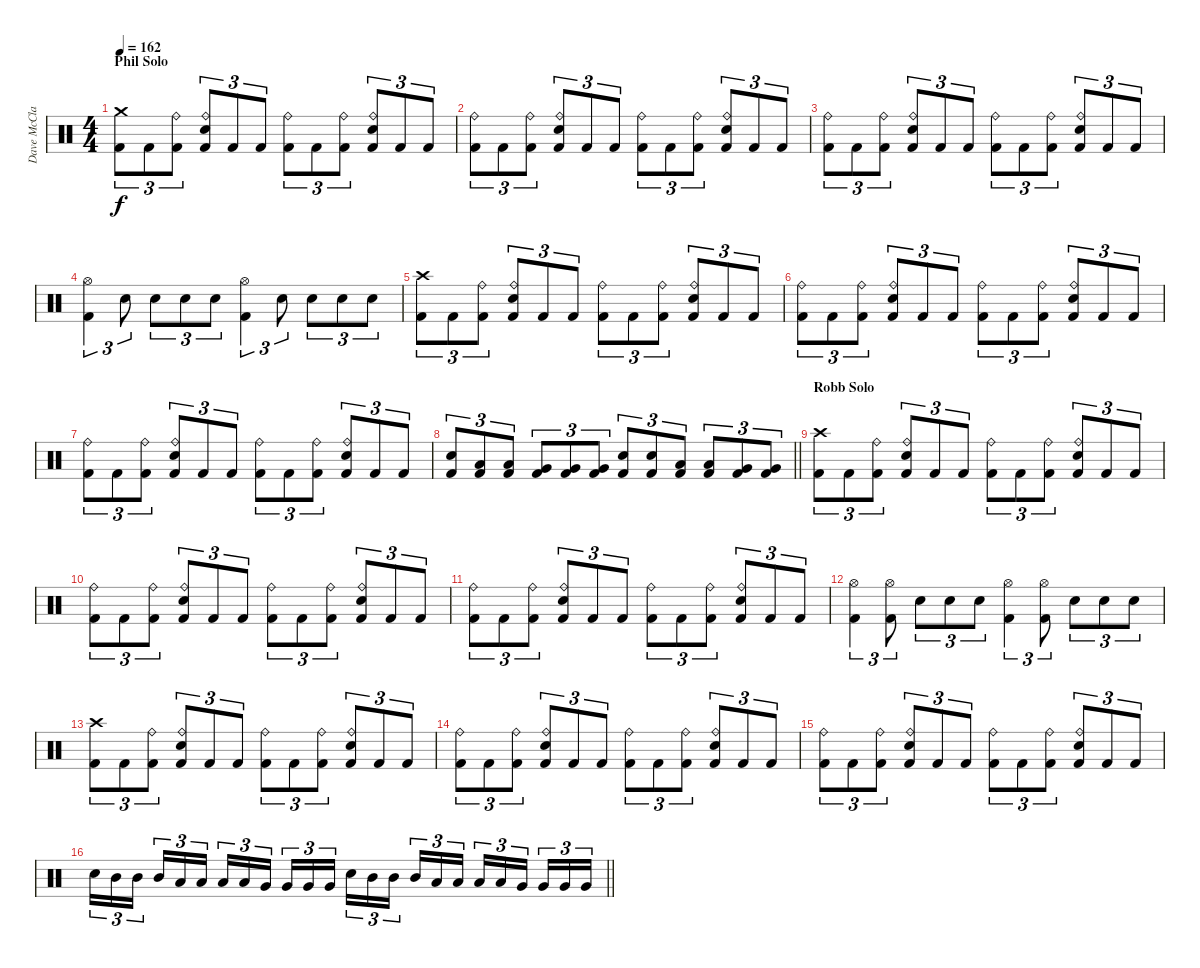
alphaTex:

\track ("Dave McClain" "Dave McCla") {instrument percussion}
\staff {score}
\articulation defaults
\ts (4 4)
\section ("" "Phil Solo")
\tempo 162
\clef neutral
\ks c
("Crash medium (hit)" "Kick (hit) 2").8{tu (3 2) dy f} "Kick (hit) 2".8{tu (3 2)} ("Ride (bell)" "Kick (hit) 2").8{tu (3 2)} ("Ride (bell)" "Snare (hit) 2" "Kick (hit) 2").8{tu (3 2)} "Kick (hit) 2".8{tu (3 2)} "Kick (hit) 2".8{tu (3 2)} ("Ride (bell)" "Kick (hit) 2").8{tu (3 2)} "Kick (hit) 2".8{tu (3 2)} ("Ride (bell)" "Kick (hit) 2").8{tu (3 2)} ("Ride (bell)" "Snare (hit) 2" "Kick (hit) 2").8{tu (3 2)} "Kick (hit) 2".8{tu (3 2)} "Kick (hit) 2".8{tu (3 2)} |
("Ride (bell)" "Kick (hit) 2").8{tu (3 2)} "Kick (hit) 2".8{tu (3 2)} ("Ride (bell)" "Kick (hit) 2").8{tu (3 2)} ("Ride (bell)" "Snare (hit) 2" "Kick (hit) 2").8{tu (3 2)} "Kick (hit) 2".8{tu (3 2)} "Kick (hit) 2".8{tu (3 2)} ("Ride (bell)" "Kick (hit) 2").8{tu (3 2)} "Kick (hit) 2".8{tu (3 2)} ("Ride (bell)" "Kick (hit) 2").8{tu (3 2)} ("Ride (bell)" "Snare (hit) 2" "Kick (hit) 2").8{tu (3 2)} "Kick (hit) 2".8{tu (3 2)} "Kick (hit) 2".8{tu (3 2)} |
("Ride (bell)" "Kick (hit) 2").8{tu (3 2)} "Kick (hit) 2".8{tu (3 2)} ("Ride (bell)" "Kick (hit) 2").8{tu (3 2)} ("Ride (bell)" "Snare (hit) 2" "Kick (hit) 2").8{tu (3 2)} "Kick (hit) 2".8{tu (3 2)} "Kick (hit) 2".8{tu (3 2)} ("Ride (bell)" "Kick (hit) 2").8{tu (3 2)} "Kick (hit) 2".8{tu (3 2)} ("Ride (bell)" "Kick (hit) 2").8{tu (3 2)} ("Ride (bell)" "Snare (hit) 2" "Kick (hit) 2").8{tu (3 2)} "Kick (hit) 2".8{tu (3 2)} "Kick (hit) 2".8{tu (3 2)} |
("Hi-Hat (open)" "Kick (hit) 2").4{tu (3 2)} "Snare (hit) 2".8{tu (3 2)} "Snare (hit) 2".8{tu (3 2)} "Snare (hit) 2".8{tu (3 2)} "Snare (hit) 2".8{tu (3 2)} ("Hi-Hat (open)" "Kick (hit) 2").4{tu (3 2)} "Snare (hit) 2".8{tu (3 2)} "Snare (hit) 2".8{tu (3 2)} "Snare (hit) 2".8{tu (3 2)} "Snare (hit) 2".8{tu (3 2)} |
("Crash high (hit)" "Kick (hit) 2").8{tu (3 2)} "Kick (hit) 2".8{tu (3 2)} ("Ride (bell)" "Kick (hit) 2").8{tu (3 2)} ("Ride (bell)" "Snare (hit) 2" "Kick (hit) 2").8{tu (3 2)} "Kick (hit) 2".8{tu (3 2)} "Kick (hit) 2".8{tu (3 2)} ("Ride (bell)" "Kick (hit) 2").8{tu (3 2)} "Kick (hit) 2".8{tu (3 2)} ("Ride (bell)" "Kick (hit) 2").8{tu (3 2)} ("Ride (bell)" "Snare (hit) 2" "Kick (hit) 2").8{tu (3 2)} "Kick (hit) 2".8{tu (3 2)} "Kick (hit) 2".8{tu (3 2)} |
("Ride (bell)" "Kick (hit) 2").8{tu (3 2)} "Kick (hit) 2".8{tu (3 2)} ("Ride (bell)" "Kick (hit) 2").8{tu (3 2)} ("Ride (bell)" "Snare (hit) 2" "Kick (hit) 2").8{tu (3 2)} "Kick (hit) 2".8{tu (3 2)} "Kick (hit) 2".8{tu (3 2)} ("Ride (bell)" "Kick (hit) 2").8{tu (3 2)} "Kick (hit) 2".8{tu (3 2)} ("Ride (bell)" "Kick (hit) 2").8{tu (3 2)} ("Ride (bell)" "Snare (hit) 2" "Kick (hit) 2").8{tu (3 2)} "Kick (hit) 2".8{tu (3 2)} "Kick (hit) 2".8{tu (3 2)} |
("Ride (bell)" "Kick (hit) 2").8{tu (3 2)} "Kick (hit) 2".8{tu (3 2)} ("Ride (bell)" "Kick (hit) 2").8{tu (3 2)} ("Ride (bell)" "Snare (hit) 2" "Kick (hit) 2").8{tu (3 2)} "Kick (hit) 2".8{tu (3 2)} "Kick (hit) 2".8{tu (3 2)} ("Ride (bell)" "Kick (hit) 2").8{tu (3 2)} "Kick (hit) 2".8{tu (3 2)} ("Ride (bell)" "Kick (hit) 2").8{tu (3 2)} ("Ride (bell)" "Snare (hit) 2" "Kick (hit) 2").8{tu (3 2)} "Kick (hit) 2".8{tu (3 2)} "Kick (hit) 2".8{tu (3 2)} |
\barLineRight lightlight
("Snare (hit) 2" "Kick (hit) 2").8{tu (3 2)} ("Low Tom (hit)" "Kick (hit) 2").8{tu (3 2)} ("Low Tom (hit)" "Kick (hit) 2").8{tu (3 2)} ("Very Low Tom (hit)" "Kick (hit) 2").8{tu (3 2)} ("Very Low Tom (hit)" "Kick (hit) 2").8{tu (3 2)} ("Very Low Tom (hit)" "Kick (hit) 2").8{tu (3 2)} ("Snare (hit) 2" "Kick (hit) 2").8{tu (3 2)} ("Snare (hit) 2" "Kick (hit) 2").8{tu (3 2)} ("Low Tom (hit)" "Kick (hit) 2").8{tu (3 2)} ("Low Tom (hit)" "Kick (hit) 2").8{tu (3 2)} ("Very Low Tom (hit)" "Kick (hit) 2").8{tu (3 2)} ("Very Low Tom (hit)" "Kick (hit) 2").8{tu (3 2)} |
\section ("" "Robb Solo")
("Crash high (hit)" "Kick (hit) 2").8{tu (3 2)} "Kick (hit) 2".8{tu (3 2)} ("Ride (bell)" "Kick (hit) 2").8{tu (3 2)} ("Ride (bell)" "Snare (hit) 2" "Kick (hit) 2").8{tu (3 2)} "Kick (hit) 2".8{tu (3 2)} "Kick (hit) 2".8{tu (3 2)} ("Ride (bell)" "Kick (hit) 2").8{tu (3 2)} "Kick (hit) 2".8{tu (3 2)} ("Ride (bell)" "Kick (hit) 2").8{tu (3 2)} ("Ride (bell)" "Snare (hit) 2" "Kick (hit) 2").8{tu (3 2)} "Kick (hit) 2".8{tu (3 2)} "Kick (hit) 2".8{tu (3 2)} |
("Ride (bell)" "Kick (hit) 2").8{tu (3 2)} "Kick (hit) 2".8{tu (3 2)} ("Ride (bell)" "Kick (hit) 2").8{tu (3 2)} ("Ride (bell)" "Snare (hit) 2" "Kick (hit) 2").8{tu (3 2)} "Kick (hit) 2".8{tu (3 2)} "Kick (hit) 2".8{tu (3 2)} ("Ride (bell)" "Kick (hit) 2").8{tu (3 2)} "Kick (hit) 2".8{tu (3 2)} ("Ride (bell)" "Kick (hit) 2").8{tu (3 2)} ("Ride (bell)" "Snare (hit) 2" "Kick (hit) 2").8{tu (3 2)} "Kick (hit) 2".8{tu (3 2)} "Kick (hit) 2".8{tu (3 2)} |
("Ride (bell)" "Kick (hit) 2").8{tu (3 2)} "Kick (hit) 2".8{tu (3 2)} ("Ride (bell)" "Kick (hit) 2").8{tu (3 2)} ("Ride (bell)" "Snare (hit) 2" "Kick (hit) 2").8{tu (3 2)} "Kick (hit) 2".8{tu (3 2)} "Kick (hit) 2".8{tu (3 2)} ("Ride (bell)" "Kick (hit) 2").8{tu (3 2)} "Kick (hit) 2".8{tu (3 2)} ("Ride (bell)" "Kick (hit) 2").8{tu (3 2)} ("Ride (bell)" "Snare (hit) 2" "Kick (hit) 2").8{tu (3 2)} "Kick (hit) 2".8{tu (3 2)} "Kick (hit) 2".8{tu (3 2)} |
("Hi-Hat (open)" "Kick (hit) 2").4{tu (3 2)} ("Hi-Hat (open)" "Kick (hit) 2").8{tu (3 2)} "Snare (hit) 2".8{tu (3 2)} "Snare (hit) 2".8{tu (3 2)} "Snare (hit) 2".8{tu (3 2)} ("Hi-Hat (open)" "Kick (hit) 2").4{tu (3 2)} ("Hi-Hat (open)" "Kick (hit) 2").8{tu (3 2)} "Snare (hit) 2".8{tu (3 2)} "Snare (hit) 2".8{tu (3 2)} "Snare (hit) 2".8{tu (3 2)} |
("Crash high (hit)" "Kick (hit) 2").8{tu (3 2)} "Kick (hit) 2".8{tu (3 2)} ("Ride (bell)" "Kick (hit) 2").8{tu (3 2)} ("Ride (bell)" "Snare (hit) 2" "Kick (hit) 2").8{tu (3 2)} "Kick (hit) 2".8{tu (3 2)} "Kick (hit) 2".8{tu (3 2)} ("Ride (bell)" "Kick (hit) 2").8{tu (3 2)} "Kick (hit) 2".8{tu (3 2)} ("Ride (bell)" "Kick (hit) 2").8{tu (3 2)} ("Ride (bell)" "Snare (hit) 2" "Kick (hit) 2").8{tu (3 2)} "Kick (hit) 2".8{tu (3 2)} "Kick (hit) 2".8{tu (3 2)} |
("Ride (bell)" "Kick (hit) 2").8{tu (3 2)} "Kick (hit) 2".8{tu (3 2)} ("Ride (bell)" "Kick (hit) 2").8{tu (3 2)} ("Ride (bell)" "Snare (hit) 2" "Kick (hit) 2").8{tu (3 2)} "Kick (hit) 2".8{tu (3 2)} "Kick (hit) 2".8{tu (3 2)} ("Ride (bell)" "Kick (hit) 2").8{tu (3 2)} "Kick (hit) 2".8{tu (3 2)} ("Ride (bell)" "Kick (hit) 2").8{tu (3 2)} ("Ride (bell)" "Snare (hit) 2" "Kick (hit) 2").8{tu (3 2)} "Kick (hit) 2".8{tu (3 2)} "Kick (hit) 2".8{tu (3 2)} |
("Ride (bell)" "Kick (hit) 2").8{tu (3 2)} "Kick (hit) 2".8{tu (3 2)} ("Ride (bell)" "Kick (hit) 2").8{tu (3 2)} ("Ride (bell)" "Snare (hit) 2" "Kick (hit) 2").8{tu (3 2)} "Kick (hit) 2".8{tu (3 2)} "Kick (hit) 2".8{tu (3 2)} ("Ride (bell)" "Kick (hit) 2").8{tu (3 2)} "Kick (hit) 2".8{tu (3 2)} ("Ride (bell)" "Kick (hit) 2").8{tu (3 2)} ("Ride (bell)" "Snare (hit) 2" "Kick (hit) 2").8{tu (3 2)} "Kick (hit) 2".8{tu (3 2)} "Kick (hit) 2".8{tu (3 2)} |
\barLineRight lightlight "Snare (hit) 2".16{tu (3 2)} "Mid Tom (hit)".16{tu (3 2)} "Mid Tom (hit)".16{tu (3 2) beam splitsecondary} "Mid Tom (hit)".16{tu (3 2)} "Low Tom (hit)".16{tu (3 2)} "Low Tom (hit)".16{tu (3 2)} "Low Tom (hit)".16{tu (3 2)} "Low Tom (hit)".16{tu (3 2)} "Very Low Tom (hit)".16{tu (3 2) beam splitsecondary} "Very Low Tom (hit)".16{tu (3 2)} "Very Low Tom (hit)".16{tu (3 2)} "Very Low Tom (hit)".16{tu (3 2)} "Snare (hit) 2".16{tu (3 2)} "Mid Tom (hit)".16{tu (3 2)} "Mid Tom (hit)".16{tu (3 2) beam splitsecondary} "Mid Tom (hit)".16{tu (3 2)} "Low Tom (hit)".16{tu (3 2)} "Low Tom (hit)".16{tu (3 2)} "Low Tom (hit)".16{tu (3 2)} "Low Tom (hit)".16{tu (3 2)} "Very Low Tom (hit)".16{tu (3 2) beam splitsecondary} "Very Low Tom (hit)".16{tu (3 2)} "Very Low Tom (hit)".16{tu (3 2)} "Very Low Tom (hit)".16{tu (3 2)}
